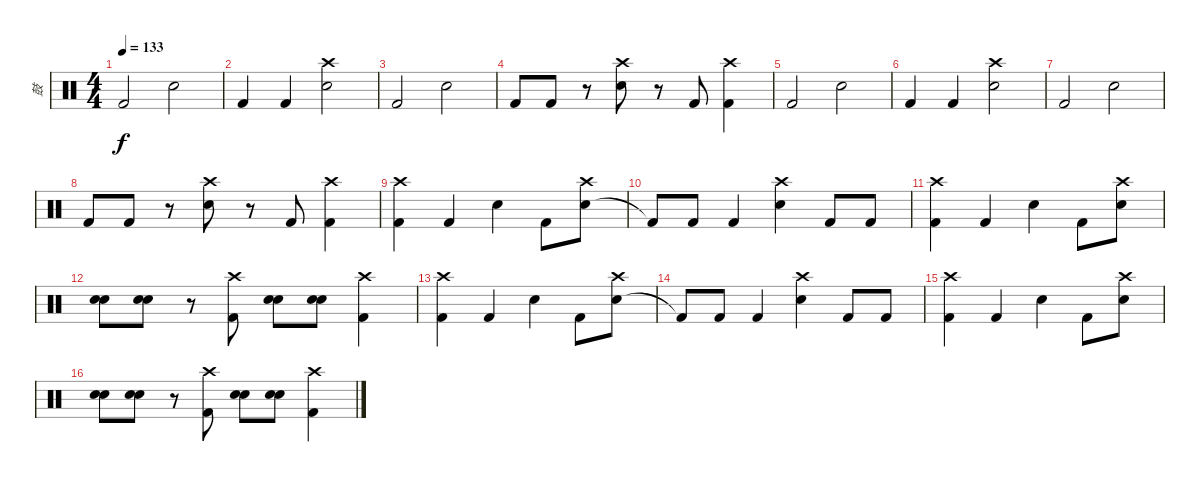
\track ("鼓" "鼓") {instrument percussion}
\staff {score}
\articulation defaults
\ts (4 4)
\tempo 133
\clef neutral
\ks c "Kick (hit) 2".2{dy f} "Electric Snare (hit)".2
|
"Kick (hit) 2".4 "Kick (hit) 2".4 ("Electric Snare (hit)" "Crash high (hit)").2 |
"Kick (hit) 2".2 "Electric Snare (hit)".2 |
"Kick (hit) 2".8 "Kick (hit) 2".8 r.8 ("Electric Snare (hit)" "Crash high (hit)").8 r.8 "Kick (hit) 2".8 ("Kick (hit) 2" "Crash high (hit)").4 |
"Kick (hit) 2".2 "Electric Snare (hit)".2 |
"Kick (hit) 2".4 "Kick (hit) 2".4 ("Electric Snare (hit)" "Crash high (hit)").2 |
"Kick (hit) 2".2 "Electric Snare (hit)".2 |
"Kick (hit) 2".8 "Kick (hit) 2".8 r.8 ("Electric Snare (hit)" "Crash high (hit)").8 r.8 "Kick (hit) 2".8 ("Kick (hit) 2" "Crash high (hit)").4 |
("Kick (hit) 2" "Crash high (hit)").4 "Kick (hit) 2".4 "Electric Snare (hit)".4 "Kick (hit) 2".8 ("Electric Snare (hit)" "Crash high (hit)").8 |
"Kick (hit) 2"{t}.8 "Kick (hit) 2".8 "Kick (hit) 2".4 ("Electric Snare (hit)" "Crash high (hit)").4 "Kick (hit) 2".8 "Kick (hit) 2".8 |
("Kick (hit) 2" "Crash high (hit)").4 "Kick (hit) 2".4 "Electric Snare (hit)".4 "Kick (hit) 2".8 ("Electric Snare (hit)" "Crash high (hit)").8 |
("Electric Snare (hit)" "Snare (hit) 2").8 ("Electric Snare (hit)" "Snare (hit) 2").8 r.8 ("Kick (hit) 2" "Crash high (hit)").8 ("Electric Snare (hit)" "Snare (hit) 2").8 ("Electric Snare (hit)" "Snare (hit) 2").8 ("Kick (hit) 2" "Crash high (hit)").4 |
("Kick (hit) 2" "Crash high (hit)").4 "Kick (hit) 2".4 "Electric Snare (hit)".4 "Kick (hit) 2".8 ("Electric Snare (hit)" "Crash high (hit)").8 |
"Kick (hit) 2"{t}.8 "Kick (hit) 2".8 "Kick (hit) 2".4 ("Electric Snare (hit)" "Crash high (hit)").4 "Kick (hit) 2".8 "Kick (hit) 2".8 |
("Kick (hit) 2" "Crash high (hit)").4 "Kick (hit) 2".4 "Electric Snare (hit)".4 "Kick (hit) 2".8 ("Electric Snare (hit)" "Crash high (hit)").8 |
("Electric Snare (hit)" "Snare (hit) 2").8 ("Electric Snare (hit)" "Snare (hit) 2").8 r.8 ("Kick (hit) 2" "Crash high (hit)").8 ("Electric Snare (hit)" "Snare (hit) 2").8 ("Electric Snare (hit)" "Snare (hit) 2").8 ("Kick (hit) 2" "Crash high (hit)").4
